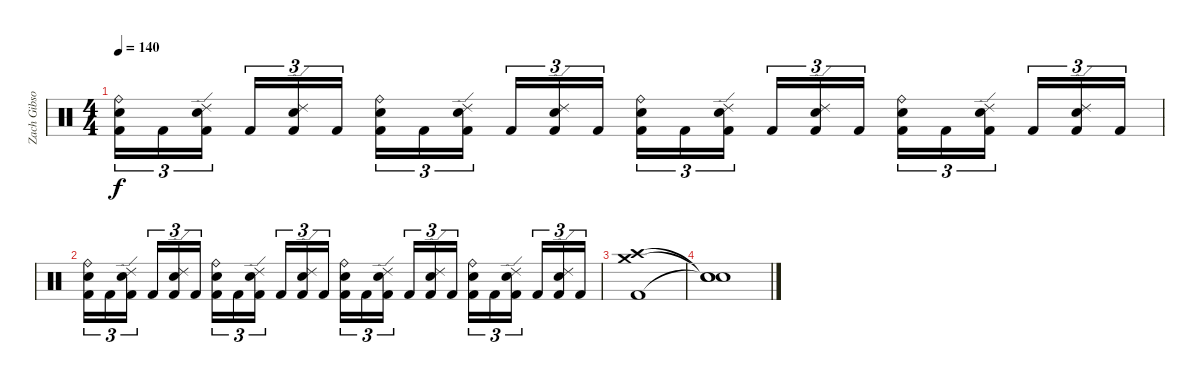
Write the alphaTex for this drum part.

\track ("Zach Gibson" "Zach Gibso") {instrument percussion}
\staff {score}
\articulation defaults
\ts (4 4)
\tempo 140
\clef neutral
\ks c
("Ride (bell)" "Snare (hit) 2" "Kick (hit) 2").16{tu (3 2) dy f} "Kick (hit) 2".16{tu (3 2)} ("Ride (edge) 2" "Snare (hit) 2" "Kick (hit) 2").16{tu (3 2) beam splitsecondary} "Kick (hit) 2".16{tu (3 2)} ("Ride (edge) 2" "Snare (hit) 2" "Kick (hit) 2").16{tu (3 2)} "Kick (hit) 2".16{tu (3 2)} ("Ride (bell)" "Snare (hit) 2" "Kick (hit) 2").16{tu (3 2)} "Kick (hit) 2".16{tu (3 2)} ("Ride (edge) 2" "Snare (hit) 2" "Kick (hit) 2").16{tu (3 2) beam splitsecondary} "Kick (hit) 2".16{tu (3 2)} ("Ride (edge) 2" "Snare (hit) 2" "Kick (hit) 2").16{tu (3 2)} "Kick (hit) 2".16{tu (3 2)} ("Ride (bell)" "Snare (hit) 2" "Kick (hit) 2").16{tu (3 2)} "Kick (hit) 2".16{tu (3 2)} ("Ride (edge) 2" "Snare (hit) 2" "Kick (hit) 2").16{tu (3 2) beam splitsecondary} "Kick (hit) 2".16{tu (3 2)} ("Ride (edge) 2" "Snare (hit) 2" "Kick (hit) 2").16{tu (3 2)} "Kick (hit) 2".16{tu (3 2)} ("Ride (bell)" "Snare (hit) 2" "Kick (hit) 2").16{tu (3 2)} "Kick (hit) 2".16{tu (3 2)} ("Ride (edge) 2" "Snare (hit) 2" "Kick (hit) 2").16{tu (3 2) beam splitsecondary} "Kick (hit) 2".16{tu (3 2)} ("Ride (edge) 2" "Snare (hit) 2" "Kick (hit) 2").16{tu (3 2)} "Kick (hit) 2".16{tu (3 2)} |
("Ride (bell)" "Snare (hit) 2" "Kick (hit) 2").16{tu (3 2)} "Kick (hit) 2".16{tu (3 2)} ("Ride (edge) 2" "Snare (hit) 2" "Kick (hit) 2").16{tu (3 2) beam splitsecondary} "Kick (hit) 2".16{tu (3 2)} ("Ride (edge) 2" "Snare (hit) 2" "Kick (hit) 2").16{tu (3 2)} "Kick (hit) 2".16{tu (3 2)} ("Ride (bell)" "Snare (hit) 2" "Kick (hit) 2").16{tu (3 2)} "Kick (hit) 2".16{tu (3 2)} ("Ride (edge) 2" "Snare (hit) 2" "Kick (hit) 2").16{tu (3 2) beam splitsecondary} "Kick (hit) 2".16{tu (3 2)} ("Ride (edge) 2" "Snare (hit) 2" "Kick (hit) 2").16{tu (3 2)} "Kick (hit) 2".16{tu (3 2)} ("Ride (bell)" "Snare (hit) 2" "Kick (hit) 2").16{tu (3 2)} "Kick (hit) 2".16{tu (3 2)} ("Ride (edge) 2" "Snare (hit) 2" "Kick (hit) 2").16{tu (3 2) beam splitsecondary} "Kick (hit) 2".16{tu (3 2)} ("Ride (edge) 2" "Snare (hit) 2" "Kick (hit) 2").16{tu (3 2)} "Kick (hit) 2".16{tu (3 2)} ("Ride (bell)" "Snare (hit) 2" "Kick (hit) 2").16{tu (3 2)} "Kick (hit) 2".16{tu (3 2)} ("Ride (edge) 2" "Snare (hit) 2" "Kick (hit) 2").16{tu (3 2) beam splitsecondary} "Kick (hit) 2".16{tu (3 2)} ("Ride (edge) 2" "Snare (hit) 2" "Kick (hit) 2").16{tu (3 2)} "Kick (hit) 2".16{tu (3 2)} |
("Crash high (hit)" "Crash medium (hit)" "Kick (hit) 2").1 |
("Snare (hit)"{t} "Snare (hit)"{t} "Snare (hit)"{t}).1
